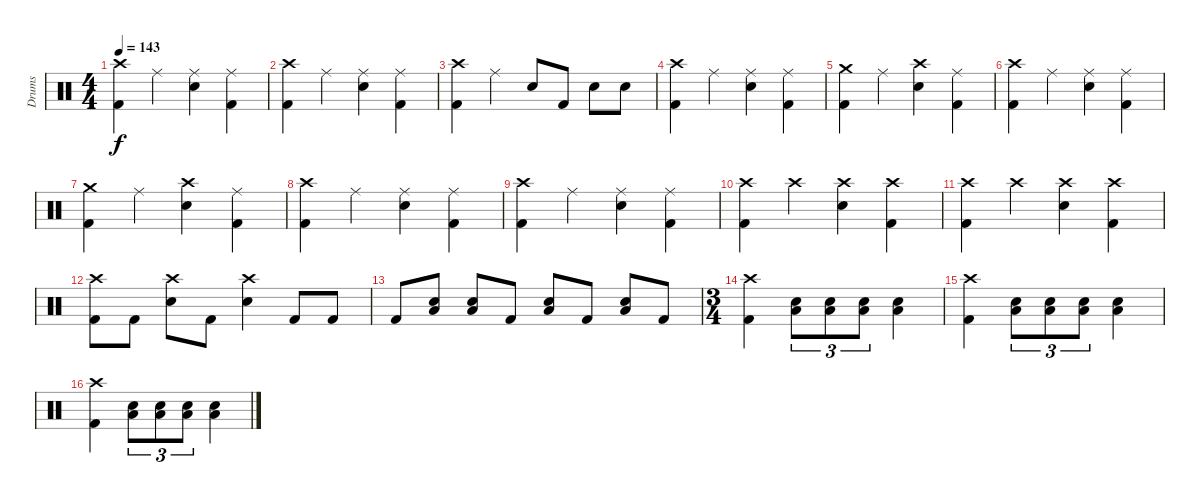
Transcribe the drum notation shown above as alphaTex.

\track ("Drums" "Drums") {instrument percussion}
\staff {score}
\articulation defaults
\ts (4 4)
\tempo 143
\clef neutral
\ks c
("Crash high (hit)" "Kick (hit) 2").4{dy f} "Ride (middle)".4 ("Ride (middle)" "Electric Snare (hit)").4 ("Ride (middle)" "Kick (hit) 2").4 |
("Crash high (hit)" "Kick (hit) 2").4 "Ride (middle)".4 ("Ride (middle)" "Electric Snare (hit)").4 ("Ride (middle)" "Kick (hit) 2").4 |
("Crash high (hit)" "Kick (hit) 2").4 "Ride (middle)".4 "Electric Snare (hit)".8 "Kick (hit) 2".8 "Electric Snare (hit)".8 "Electric Snare (hit)".8 |
("Crash high (hit)" "Kick (hit) 2").4 "Ride (middle)".4 ("Ride (middle)" "Electric Snare (hit)").4 ("Ride (middle)" "Kick (hit) 2").4 |
("Crash medium (hit)" "Kick (hit) 2").4 "Ride (middle)".4 ("Crash high (hit)" "Electric Snare (hit)").4 ("Ride (middle)" "Kick (hit) 2").4 |
("Crash high (hit)" "Kick (hit) 2").4 "Ride (middle)".4 ("Ride (middle)" "Electric Snare (hit)").4 ("Ride (middle)" "Kick (hit) 2").4 |
("Crash medium (hit)" "Kick (hit) 2").4 "Ride (middle)".4 ("Crash high (hit)" "Electric Snare (hit)").4 ("Ride (middle)" "Kick (hit) 2").4 |
("Crash high (hit)" "Kick (hit) 2").4 "Ride (middle)".4 ("Ride (middle)" "Electric Snare (hit)").4 ("Ride (middle)" "Kick (hit) 2").4 |
("Crash high (hit)" "Kick (hit) 2").4 "Ride (middle)".4 ("Ride (middle)" "Electric Snare (hit)").4 ("Ride (middle)" "Kick (hit) 2").4 |
("Crash high (hit)" "Kick (hit) 2").4 "Crash high (hit)".4 ("Crash high (hit)" "Electric Snare (hit)").4 ("Crash high (hit)" "Kick (hit) 2").4 |
("Crash high (hit)" "Kick (hit) 2").4 "Crash high (hit)".4 ("Crash high (hit)" "Electric Snare (hit)").4 ("Crash high (hit)" "Kick (hit) 2").4 |
("Crash high (hit)" "Kick (hit) 2").8 "Kick (hit) 2".8 ("Crash high (hit)" "Electric Snare (hit)").8 "Kick (hit) 2".8 ("Crash high (hit)" "Electric Snare (hit)").4 "Kick (hit) 2".8 "Kick (hit) 2".8 |
"Kick (hit) 2".8 ("Electric Snare (hit)" "Low Floor Tom (hit)").8 ("Electric Snare (hit)" "Low Floor Tom (hit)").8 "Kick (hit) 2".8 ("Electric Snare (hit)" "Low Floor Tom (hit)").8 "Kick (hit) 2".8 ("Electric Snare (hit)" "Low Floor Tom (hit)").8 "Kick (hit) 2".8 |
\ts (3 4)
("Crash high (hit)" "Kick (hit) 2").4 ("Electric Snare (hit)" "Low Floor Tom (hit)").8{tu (3 2)} ("Electric Snare (hit)" "Low Floor Tom (hit)").8{tu (3 2)} ("Electric Snare (hit)" "Low Floor Tom (hit)").8{tu (3 2)} ("Electric Snare (hit)" "Low Floor Tom (hit)").4 |
("Crash high (hit)" "Kick (hit) 2").4 ("Electric Snare (hit)" "Low Floor Tom (hit)").8{tu (3 2)} ("Electric Snare (hit)" "Low Floor Tom (hit)").8{tu (3 2)} ("Electric Snare (hit)" "Low Floor Tom (hit)").8{tu (3 2)} ("Electric Snare (hit)" "Low Floor Tom (hit)").4 |
("Crash high (hit)" "Kick (hit) 2").4 ("Electric Snare (hit)" "Low Floor Tom (hit)").8{tu (3 2)} ("Electric Snare (hit)" "Low Floor Tom (hit)").8{tu (3 2)} ("Electric Snare (hit)" "Low Floor Tom (hit)").8{tu (3 2)} ("Electric Snare (hit)" "Low Floor Tom (hit)").4
